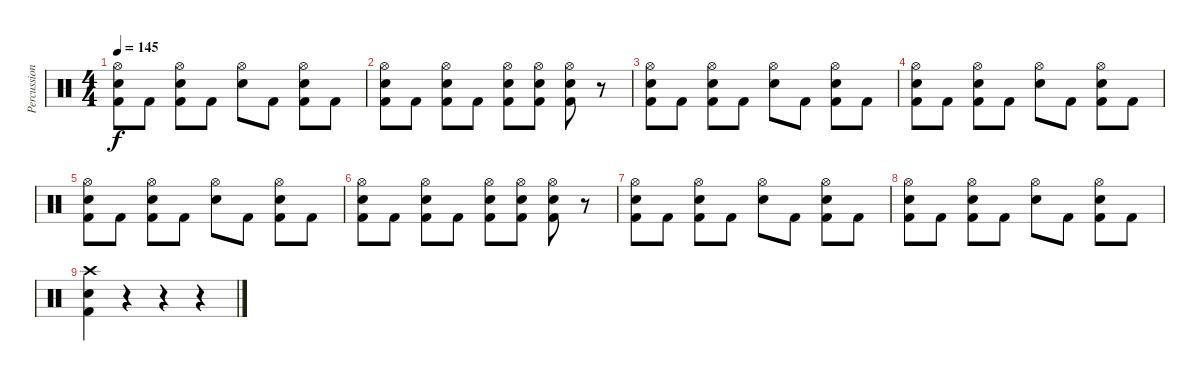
\track ("Percussion" "Percussion") {instrument percussion}
\staff {score}
\articulation defaults
\ts (4 4)
\tempo 145
\clef neutral
\ks c
("Hi-Hat (open)" "Electric Snare (hit)" "Kick (hit) 2").8{dy f} "Kick (hit) 2".8 ("Hi-Hat (open)" "Electric Snare (hit)" "Kick (hit) 2").8 "Kick (hit) 2".8 ("Hi-Hat (open)" "Electric Snare (hit)").8 "Kick (hit) 2".8 ("Hi-Hat (open)" "Electric Snare (hit)" "Kick (hit) 2").8 "Kick (hit) 2".8 |
("Hi-Hat (open)" "Electric Snare (hit)" "Kick (hit) 2").8 "Kick (hit) 2".8 ("Hi-Hat (open)" "Electric Snare (hit)" "Kick (hit) 2").8 "Kick (hit) 2".8 ("Hi-Hat (open)" "Electric Snare (hit)" "Kick (hit) 2").8 ("Hi-Hat (open)" "Electric Snare (hit)" "Kick (hit) 2").8 ("Hi-Hat (open)" "Electric Snare (hit)" "Kick (hit) 2").8 r.8 |
("Hi-Hat (open)" "Electric Snare (hit)" "Kick (hit) 2").8 "Kick (hit) 2".8 ("Hi-Hat (open)" "Electric Snare (hit)" "Kick (hit) 2").8 "Kick (hit) 2".8 ("Hi-Hat (open)" "Electric Snare (hit)").8 "Kick (hit) 2".8 ("Hi-Hat (open)" "Electric Snare (hit)" "Kick (hit) 2").8 "Kick (hit) 2".8 |
("Hi-Hat (open)" "Electric Snare (hit)" "Kick (hit) 2").8 "Kick (hit) 2".8 ("Hi-Hat (open)" "Electric Snare (hit)" "Kick (hit) 2").8 "Kick (hit) 2".8 ("Hi-Hat (open)" "Electric Snare (hit)").8 "Kick (hit) 2".8 ("Hi-Hat (open)" "Electric Snare (hit)" "Kick (hit) 2").8 "Kick (hit) 2".8 |
("Hi-Hat (open)" "Electric Snare (hit)" "Kick (hit) 2").8 "Kick (hit) 2".8 ("Hi-Hat (open)" "Electric Snare (hit)" "Kick (hit) 2").8 "Kick (hit) 2".8 ("Hi-Hat (open)" "Electric Snare (hit)").8 "Kick (hit) 2".8 ("Hi-Hat (open)" "Electric Snare (hit)" "Kick (hit) 2").8 "Kick (hit) 2".8 |
("Hi-Hat (open)" "Electric Snare (hit)" "Kick (hit) 2").8 "Kick (hit) 2".8 ("Hi-Hat (open)" "Electric Snare (hit)" "Kick (hit) 2").8 "Kick (hit) 2".8 ("Hi-Hat (open)" "Electric Snare (hit)" "Kick (hit) 2").8 ("Hi-Hat (open)" "Electric Snare (hit)" "Kick (hit) 2").8 ("Hi-Hat (open)" "Electric Snare (hit)" "Kick (hit) 2").8 r.8 |
("Hi-Hat (open)" "Electric Snare (hit)" "Kick (hit) 2").8 "Kick (hit) 2".8 ("Hi-Hat (open)" "Electric Snare (hit)" "Kick (hit) 2").8 "Kick (hit) 2".8 ("Hi-Hat (open)" "Electric Snare (hit)").8 "Kick (hit) 2".8 ("Hi-Hat (open)" "Electric Snare (hit)" "Kick (hit) 2").8 "Kick (hit) 2".8 |
("Hi-Hat (open)" "Electric Snare (hit)" "Kick (hit) 2").8 "Kick (hit) 2".8 ("Hi-Hat (open)" "Electric Snare (hit)" "Kick (hit) 2").8 "Kick (hit) 2".8 ("Hi-Hat (open)" "Electric Snare (hit)").8 "Kick (hit) 2".8 ("Hi-Hat (open)" "Electric Snare (hit)" "Kick (hit) 2").8 "Kick (hit) 2".8 |
("Crash high (hit)" "Electric Snare (hit)" "Kick (hit) 2").4 r.4 r.4 r.4
